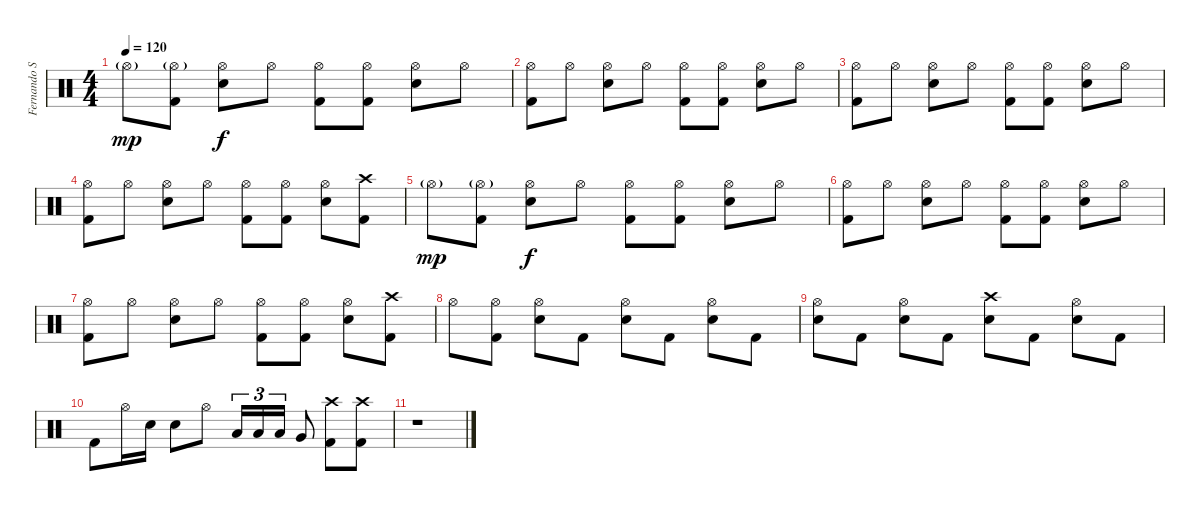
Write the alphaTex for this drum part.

\track ("Fernando Scarcella" "Fernando S") {instrument percussion}
\staff {score}
\articulation defaults
\ts (4 4)
\tempo 120
\clef neutral
\ks c "Hi-Hat (open)"{g}.8{dy mp}
("Hi-Hat (open)"{g} "Kick (hit) 2").8 ("Hi-Hat (open)" "Snare (hit) 2").8{dy f} "Hi-Hat (open)".8 ("Hi-Hat (open)" "Kick (hit) 2").8 ("Hi-Hat (open)" "Kick (hit) 2").8 ("Hi-Hat (open)" "Snare (hit) 2").8 "Hi-Hat (open)".8 |
("Hi-Hat (open)" "Kick (hit) 2").8 "Hi-Hat (open)".8 ("Hi-Hat (open)" "Snare (hit) 2").8 "Hi-Hat (open)".8 ("Hi-Hat (open)" "Kick (hit) 2").8 ("Hi-Hat (open)" "Kick (hit) 2").8 ("Hi-Hat (open)" "Snare (hit) 2").8 "Hi-Hat (open)".8 |
("Hi-Hat (open)" "Kick (hit) 2").8 "Hi-Hat (open)".8 ("Hi-Hat (open)" "Snare (hit) 2").8 "Hi-Hat (open)".8 ("Hi-Hat (open)" "Kick (hit) 2").8 ("Hi-Hat (open)" "Kick (hit) 2").8 ("Hi-Hat (open)" "Snare (hit) 2").8 "Hi-Hat (open)".8 |
("Hi-Hat (open)" "Kick (hit) 2").8 "Hi-Hat (open)".8 ("Hi-Hat (open)" "Snare (hit) 2").8 "Hi-Hat (open)".8 ("Hi-Hat (open)" "Kick (hit) 2").8 ("Hi-Hat (open)" "Kick (hit) 2").8 ("Hi-Hat (open)" "Snare (hit) 2").8 ("Crash high (hit)" "Kick (hit) 2").8 |
"Hi-Hat (open)"{g}.8{dy mp} ("Hi-Hat (open)"{g} "Kick (hit) 2").8 ("Hi-Hat (open)" "Snare (hit) 2").8{dy f} "Hi-Hat (open)".8 ("Hi-Hat (open)" "Kick (hit) 2").8 ("Hi-Hat (open)" "Kick (hit) 2").8 ("Hi-Hat (open)" "Snare (hit) 2").8 "Hi-Hat (open)".8 |
("Hi-Hat (open)" "Kick (hit) 2").8 "Hi-Hat (open)".8 ("Hi-Hat (open)" "Snare (hit) 2").8 "Hi-Hat (open)".8 ("Hi-Hat (open)" "Kick (hit) 2").8 ("Hi-Hat (open)" "Kick (hit) 2").8 ("Hi-Hat (open)" "Snare (hit) 2").8 "Hi-Hat (open)".8 |
("Hi-Hat (open)" "Kick (hit) 2").8 "Hi-Hat (open)".8 ("Hi-Hat (open)" "Snare (hit) 2").8 "Hi-Hat (open)".8 ("Hi-Hat (open)" "Kick (hit) 2").8 ("Hi-Hat (open)" "Kick (hit) 2").8 ("Hi-Hat (open)" "Snare (hit) 2").8 ("Crash high (hit)" "Kick (hit) 2").8 |
"Hi-Hat (open)".8 ("Hi-Hat (open)" "Kick (hit) 2").8 ("Hi-Hat (open)" "Snare (hit) 2").8 "Kick (hit) 2".8 ("Hi-Hat (open)" "Snare (hit) 2").8 "Kick (hit) 2".8 ("Hi-Hat (open)" "Snare (hit) 2").8 "Kick (hit) 2".8 |
("Hi-Hat (open)" "Snare (hit) 2").8 "Kick (hit) 2".8 ("Hi-Hat (open)" "Snare (hit) 2").8 "Kick (hit) 2".8 ("Crash high (hit)" "Snare (hit) 2").8 "Kick (hit) 2".8 ("Hi-Hat (open)" "Snare (hit) 2").8 "Kick (hit) 2".8 |
"Kick (hit) 2".8 "Hi-Hat (open)".16 "Snare (hit) 2".16 "Snare (hit) 2".8 "Hi-Hat (open)".8 "Low Tom (hit)".16{tu (3 2)} "Low Tom (hit)".16{tu (3 2)} "Low Tom (hit)".16{tu (3 2)} "Very Low Tom (hit)".8 ("Crash high (hit)" "Kick (hit) 2").8 ("Crash high (hit)" "Kick (hit) 2").8 |
r.1
